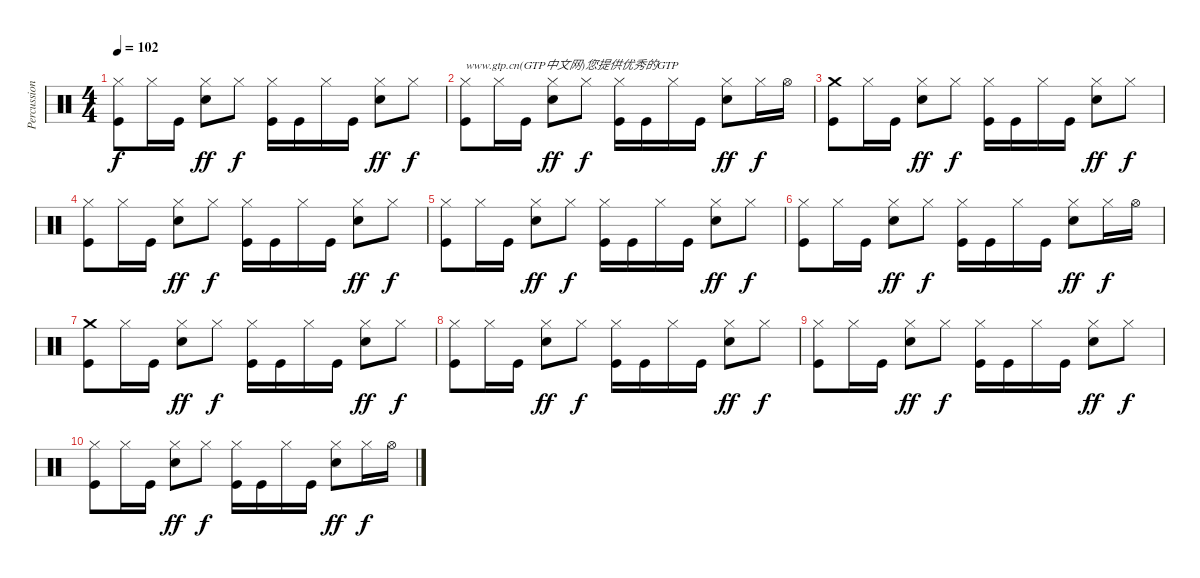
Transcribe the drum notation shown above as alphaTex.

\track ("Percussion" "Percussion") {instrument percussion}
\staff {score}
\articulation defaults
\ts (4 4)
\tempo 102
\clef neutral
\ks c
("Hi-Hat (closed)" "Kick (hit)").8{dy f} "Hi-Hat (closed)".16 "Kick (hit)".16 ("Hi-Hat (closed)" "Snare (hit) 2").8{dy ff} "Hi-Hat (closed)".8{dy f} ("Hi-Hat (closed)" "Kick (hit)").16 "Kick (hit)".16 "Hi-Hat (closed)".16 "Kick (hit)".16 ("Hi-Hat (closed)" "Snare (hit) 2").8{dy ff} "Hi-Hat (closed)".8{dy f} |
("Hi-Hat (closed)" "Kick (hit)").8{txt "www.gtp.cn(GTP中文网)您提供优秀的GTP"} "Hi-Hat (closed)".16 "Kick (hit)".16 ("Hi-Hat (closed)" "Snare (hit) 2").8{dy ff} "Hi-Hat (closed)".8{dy f} ("Hi-Hat (closed)" "Kick (hit)").16 "Kick (hit)".16 "Hi-Hat (closed)".16 "Kick (hit)".16 ("Hi-Hat (closed)" "Snare (hit) 2").8{dy ff} "Hi-Hat (closed)".16{dy f} "Hi-Hat (open)".16 |
("Crash medium (hit)" "Kick (hit)").8{volume 4} "Hi-Hat (closed)".16 "Kick (hit)".16 ("Hi-Hat (closed)" "Snare (hit) 2").8{dy ff} "Hi-Hat (closed)".8{dy f} ("Hi-Hat (closed)" "Kick (hit)").16 "Kick (hit)".16 "Hi-Hat (closed)".16 "Kick (hit)".16 ("Hi-Hat (closed)" "Snare (hit) 2").8{dy ff} "Hi-Hat (closed)".8{dy f} |
("Hi-Hat (closed)" "Kick (hit)").8 "Hi-Hat (closed)".16 "Kick (hit)".16 ("Hi-Hat (closed)" "Snare (hit) 2").8{dy ff} "Hi-Hat (closed)".8{dy f} ("Hi-Hat (closed)" "Kick (hit)").16 "Kick (hit)".16 "Hi-Hat (closed)".16 "Kick (hit)".16 ("Hi-Hat (closed)" "Snare (hit) 2").8{dy ff} "Hi-Hat (closed)".8{dy f} |
("Hi-Hat (closed)" "Kick (hit)").8 "Hi-Hat (closed)".16 "Kick (hit)".16 ("Hi-Hat (closed)" "Snare (hit) 2").8{dy ff} "Hi-Hat (closed)".8{dy f} ("Hi-Hat (closed)" "Kick (hit)").16 "Kick (hit)".16 "Hi-Hat (closed)".16 "Kick (hit)".16 ("Hi-Hat (closed)" "Snare (hit) 2").8{dy ff} "Hi-Hat (closed)".8{dy f} |
("Hi-Hat (closed)" "Kick (hit)").8 "Hi-Hat (closed)".16 "Kick (hit)".16 ("Hi-Hat (closed)" "Snare (hit) 2").8{dy ff} "Hi-Hat (closed)".8{dy f} ("Hi-Hat (closed)" "Kick (hit)").16 "Kick (hit)".16 "Hi-Hat (closed)".16 "Kick (hit)".16 ("Hi-Hat (closed)" "Snare (hit) 2").8{dy ff} "Hi-Hat (closed)".16{dy f} "Hi-Hat (open)".16 |
("Crash medium (hit)" "Kick (hit)").8{volume 1} "Hi-Hat (closed)".16 "Kick (hit)".16 ("Hi-Hat (closed)" "Snare (hit) 2").8{dy ff} "Hi-Hat (closed)".8{dy f} ("Hi-Hat (closed)" "Kick (hit)").16 "Kick (hit)".16 "Hi-Hat (closed)".16 "Kick (hit)".16 ("Hi-Hat (closed)" "Snare (hit) 2").8{dy ff} "Hi-Hat (closed)".8{dy f} |
("Hi-Hat (closed)" "Kick (hit)").8 "Hi-Hat (closed)".16 "Kick (hit)".16 ("Hi-Hat (closed)" "Snare (hit) 2").8{dy ff} "Hi-Hat (closed)".8{dy f} ("Hi-Hat (closed)" "Kick (hit)").16 "Kick (hit)".16 "Hi-Hat (closed)".16 "Kick (hit)".16 ("Hi-Hat (closed)" "Snare (hit) 2").8{dy ff} "Hi-Hat (closed)".8{dy f} |
("Hi-Hat (closed)" "Kick (hit)").8 "Hi-Hat (closed)".16 "Kick (hit)".16 ("Hi-Hat (closed)" "Snare (hit) 2").8{dy ff} "Hi-Hat (closed)".8{dy f} ("Hi-Hat (closed)" "Kick (hit)").16 "Kick (hit)".16 "Hi-Hat (closed)".16 "Kick (hit)".16 ("Hi-Hat (closed)" "Snare (hit) 2").8{dy ff} "Hi-Hat (closed)".8{dy f} |
("Hi-Hat (closed)" "Kick (hit)").8 "Hi-Hat (closed)".16 "Kick (hit)".16 ("Hi-Hat (closed)" "Snare (hit) 2").8{dy ff} "Hi-Hat (closed)".8{dy f} ("Hi-Hat (closed)" "Kick (hit)").16 "Kick (hit)".16 "Hi-Hat (closed)".16 "Kick (hit)".16 ("Hi-Hat (closed)" "Snare (hit) 2").8{dy ff} "Hi-Hat (closed)".16{dy f} "Hi-Hat (open)".16
